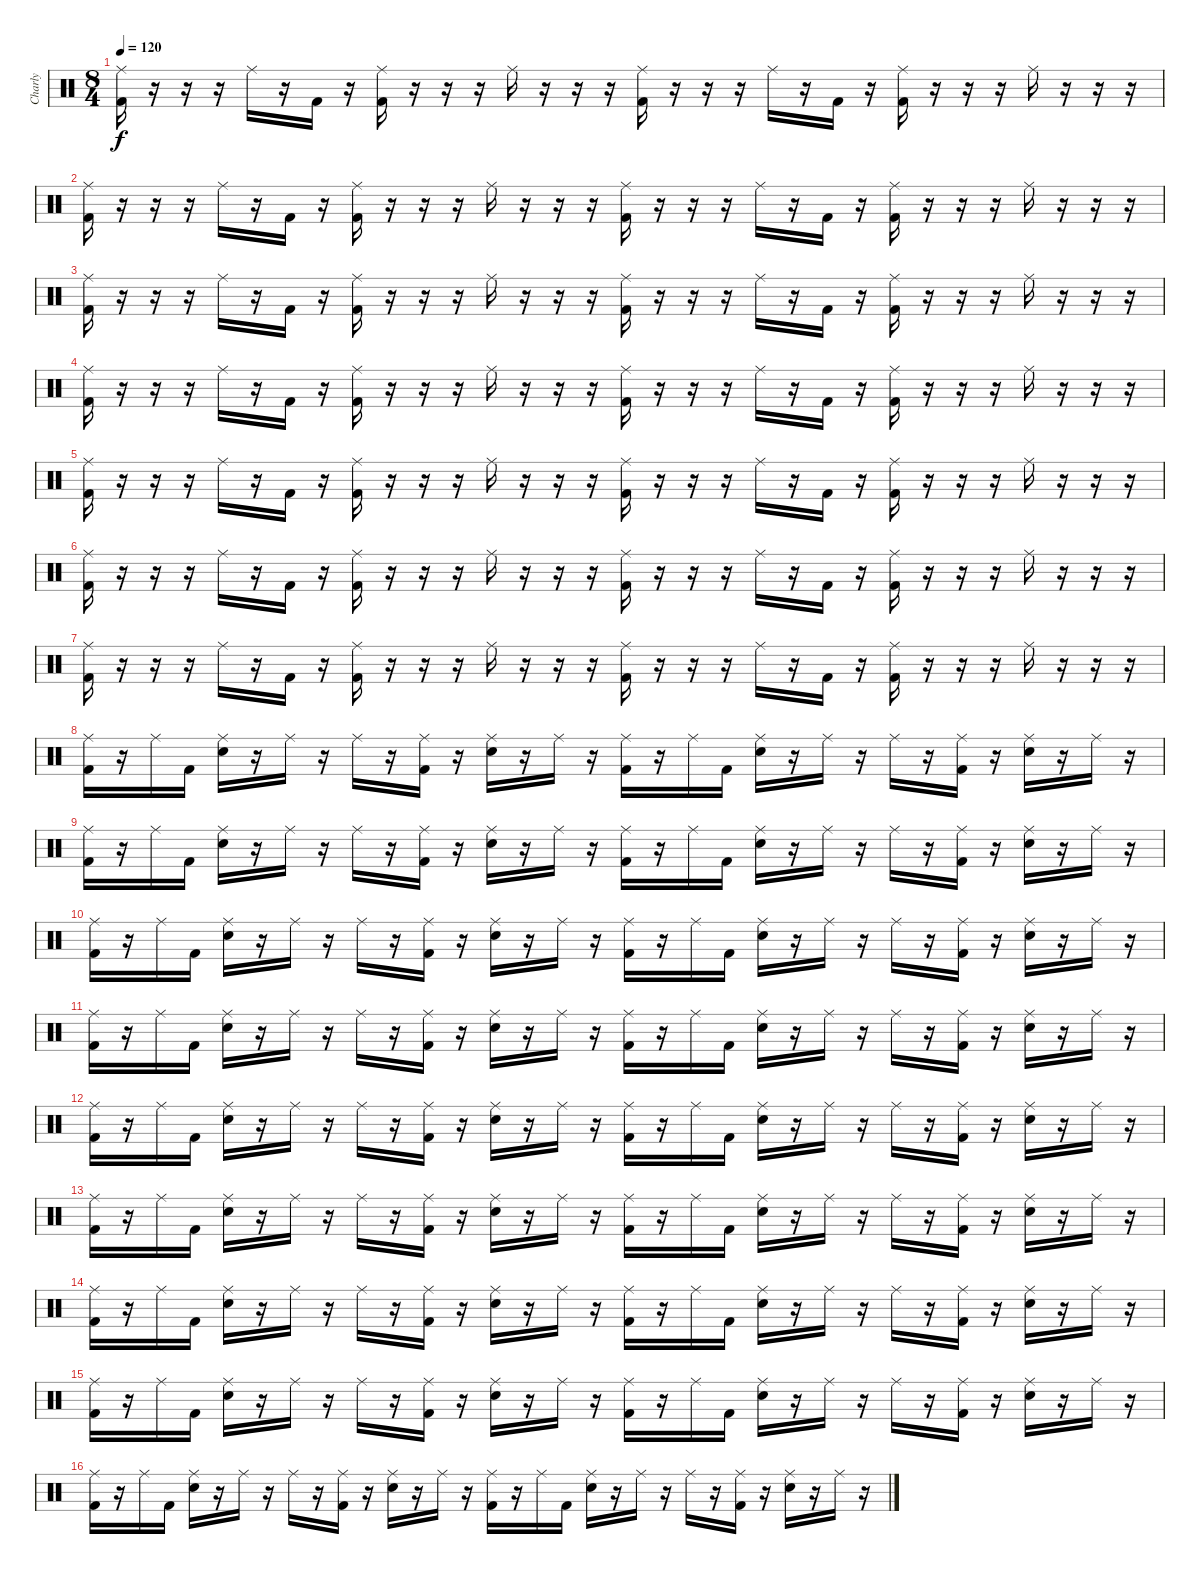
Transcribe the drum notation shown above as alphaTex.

\track ("Charly" "Charly") {instrument percussion}
\staff {score}
\articulation defaults
\ts (8 4)
\tempo 120
\clef neutral
\ks c
("Ride (middle)" "Kick (hit) 2").16{dy f} r.16 r.16 r.16 "Ride (middle)".16 r.16 "Kick (hit) 2".16 r.16 ("Ride (middle)" "Kick (hit) 2").16 r.16 r.16 r.16 "Ride (middle)".16 r.16 r.16 r.16 ("Ride (middle)" "Kick (hit) 2").16 r.16 r.16 r.16 "Ride (middle)".16 r.16 "Kick (hit) 2".16 r.16 ("Ride (middle)" "Kick (hit) 2").16 r.16 r.16 r.16 "Ride (middle)".16 r.16 r.16 r.16 |
("Ride (middle)" "Kick (hit) 2").16 r.16 r.16 r.16 "Ride (middle)".16 r.16 "Kick (hit) 2".16 r.16 ("Ride (middle)" "Kick (hit) 2").16 r.16 r.16 r.16 "Ride (middle)".16 r.16 r.16 r.16 ("Ride (middle)" "Kick (hit) 2").16 r.16 r.16 r.16 "Ride (middle)".16 r.16 "Kick (hit) 2".16 r.16 ("Ride (middle)" "Kick (hit) 2").16 r.16 r.16 r.16 "Ride (middle)".16 r.16 r.16 r.16 |
("Ride (middle)" "Kick (hit) 2").16 r.16 r.16 r.16 "Ride (middle)".16 r.16 "Kick (hit) 2".16 r.16 ("Ride (middle)" "Kick (hit) 2").16 r.16 r.16 r.16 "Ride (middle)".16 r.16 r.16 r.16 ("Ride (middle)" "Kick (hit) 2").16 r.16 r.16 r.16 "Ride (middle)".16 r.16 "Kick (hit) 2".16 r.16 ("Ride (middle)" "Kick (hit) 2").16 r.16 r.16 r.16 "Ride (middle)".16 r.16 r.16 r.16 |
("Ride (middle)" "Kick (hit) 2").16 r.16 r.16 r.16 "Ride (middle)".16 r.16 "Kick (hit) 2".16 r.16 ("Ride (middle)" "Kick (hit) 2").16 r.16 r.16 r.16 "Ride (middle)".16 r.16 r.16 r.16 ("Ride (middle)" "Kick (hit) 2").16 r.16 r.16 r.16 "Ride (middle)".16 r.16 "Kick (hit) 2".16 r.16 ("Ride (middle)" "Kick (hit) 2").16 r.16 r.16 r.16 "Ride (middle)".16 r.16 r.16 r.16 |
("Ride (middle)" "Kick (hit) 2").16 r.16 r.16 r.16 "Ride (middle)".16 r.16 "Kick (hit) 2".16 r.16 ("Ride (middle)" "Kick (hit) 2").16 r.16 r.16 r.16 "Ride (middle)".16 r.16 r.16 r.16 ("Ride (middle)" "Kick (hit) 2").16 r.16 r.16 r.16 "Ride (middle)".16 r.16 "Kick (hit) 2".16 r.16 ("Ride (middle)" "Kick (hit) 2").16 r.16 r.16 r.16 "Ride (middle)".16 r.16 r.16 r.16 |
("Ride (middle)" "Kick (hit) 2").16 r.16 r.16 r.16 "Ride (middle)".16 r.16 "Kick (hit) 2".16 r.16 ("Ride (middle)" "Kick (hit) 2").16 r.16 r.16 r.16 "Ride (middle)".16 r.16 r.16 r.16 ("Ride (middle)" "Kick (hit) 2").16 r.16 r.16 r.16 "Ride (middle)".16 r.16 "Kick (hit) 2".16 r.16 ("Ride (middle)" "Kick (hit) 2").16 r.16 r.16 r.16 "Ride (middle)".16 r.16 r.16 r.16 |
("Ride (middle)" "Kick (hit) 2").16 r.16 r.16 r.16 "Ride (middle)".16 r.16 "Kick (hit) 2".16 r.16 ("Ride (middle)" "Kick (hit) 2").16 r.16 r.16 r.16 "Ride (middle)".16 r.16 r.16 r.16 ("Ride (middle)" "Kick (hit) 2").16 r.16 r.16 r.16 "Ride (middle)".16 r.16 "Kick (hit) 2".16 r.16 ("Ride (middle)" "Kick (hit) 2").16 r.16 r.16 r.16 "Ride (middle)".16 r.16 r.16 r.16 |
("Ride (middle)" "Kick (hit) 2").16 r.16 "Ride (middle)".16 "Kick (hit) 2".16 ("Ride (middle)" "Snare (hit) 2").16 r.16 "Ride (middle)".16 r.16 "Ride (middle)".16 r.16 ("Ride (middle)" "Kick (hit) 2").16 r.16 ("Ride (middle)" "Snare (hit) 2").16 r.16 "Ride (middle)".16 r.16 ("Ride (middle)" "Kick (hit) 2").16 r.16 "Ride (middle)".16 "Kick (hit) 2".16 ("Ride (middle)" "Snare (hit) 2").16 r.16 "Ride (middle)".16 r.16 "Ride (middle)".16 r.16 ("Ride (middle)" "Kick (hit) 2").16 r.16 ("Ride (middle)" "Snare (hit) 2").16 r.16 "Ride (middle)".16 r.16 |
("Ride (middle)" "Kick (hit) 2").16 r.16 "Ride (middle)".16 "Kick (hit) 2".16 ("Ride (middle)" "Snare (hit) 2").16 r.16 "Ride (middle)".16 r.16 "Ride (middle)".16 r.16 ("Ride (middle)" "Kick (hit) 2").16 r.16 ("Ride (middle)" "Snare (hit) 2").16 r.16 "Ride (middle)".16 r.16 ("Ride (middle)" "Kick (hit) 2").16 r.16 "Ride (middle)".16 "Kick (hit) 2".16 ("Ride (middle)" "Snare (hit) 2").16 r.16 "Ride (middle)".16 r.16 "Ride (middle)".16 r.16 ("Ride (middle)" "Kick (hit) 2").16 r.16 ("Ride (middle)" "Snare (hit) 2").16 r.16 "Ride (middle)".16 r.16 |
("Ride (middle)" "Kick (hit) 2").16 r.16 "Ride (middle)".16 "Kick (hit) 2".16 ("Ride (middle)" "Snare (hit) 2").16 r.16 "Ride (middle)".16 r.16 "Ride (middle)".16 r.16 ("Ride (middle)" "Kick (hit) 2").16 r.16 ("Ride (middle)" "Snare (hit) 2").16 r.16 "Ride (middle)".16 r.16 ("Ride (middle)" "Kick (hit) 2").16 r.16 "Ride (middle)".16 "Kick (hit) 2".16 ("Ride (middle)" "Snare (hit) 2").16 r.16 "Ride (middle)".16 r.16 "Ride (middle)".16 r.16 ("Ride (middle)" "Kick (hit) 2").16 r.16 ("Ride (middle)" "Snare (hit) 2").16 r.16 "Ride (middle)".16 r.16 |
("Ride (middle)" "Kick (hit) 2").16 r.16 "Ride (middle)".16 "Kick (hit) 2".16 ("Ride (middle)" "Snare (hit) 2").16 r.16 "Ride (middle)".16 r.16 "Ride (middle)".16 r.16 ("Ride (middle)" "Kick (hit) 2").16 r.16 ("Ride (middle)" "Snare (hit) 2").16 r.16 "Ride (middle)".16 r.16 ("Ride (middle)" "Kick (hit) 2").16 r.16 "Ride (middle)".16 "Kick (hit) 2".16 ("Ride (middle)" "Snare (hit) 2").16 r.16 "Ride (middle)".16 r.16 "Ride (middle)".16 r.16 ("Ride (middle)" "Kick (hit) 2").16 r.16 ("Ride (middle)" "Snare (hit) 2").16 r.16 "Ride (middle)".16 r.16 |
("Ride (middle)" "Kick (hit) 2").16 r.16 "Ride (middle)".16 "Kick (hit) 2".16 ("Ride (middle)" "Snare (hit) 2").16 r.16 "Ride (middle)".16 r.16 "Ride (middle)".16 r.16 ("Ride (middle)" "Kick (hit) 2").16 r.16 ("Ride (middle)" "Snare (hit) 2").16 r.16 "Ride (middle)".16 r.16 ("Ride (middle)" "Kick (hit) 2").16 r.16 "Ride (middle)".16 "Kick (hit) 2".16 ("Ride (middle)" "Snare (hit) 2").16 r.16 "Ride (middle)".16 r.16 "Ride (middle)".16 r.16 ("Ride (middle)" "Kick (hit) 2").16 r.16 ("Ride (middle)" "Snare (hit) 2").16 r.16 "Ride (middle)".16 r.16 |
("Ride (middle)" "Kick (hit) 2").16 r.16 "Ride (middle)".16 "Kick (hit) 2".16 ("Ride (middle)" "Snare (hit) 2").16 r.16 "Ride (middle)".16 r.16 "Ride (middle)".16 r.16 ("Ride (middle)" "Kick (hit) 2").16 r.16 ("Ride (middle)" "Snare (hit) 2").16 r.16 "Ride (middle)".16 r.16 ("Ride (middle)" "Kick (hit) 2").16 r.16 "Ride (middle)".16 "Kick (hit) 2".16 ("Ride (middle)" "Snare (hit) 2").16 r.16 "Ride (middle)".16 r.16 "Ride (middle)".16 r.16 ("Ride (middle)" "Kick (hit) 2").16 r.16 ("Ride (middle)" "Snare (hit) 2").16 r.16 "Ride (middle)".16 r.16 |
("Ride (middle)" "Kick (hit) 2").16 r.16 "Ride (middle)".16 "Kick (hit) 2".16 ("Ride (middle)" "Snare (hit) 2").16 r.16 "Ride (middle)".16 r.16 "Ride (middle)".16 r.16 ("Ride (middle)" "Kick (hit) 2").16 r.16 ("Ride (middle)" "Snare (hit) 2").16 r.16 "Ride (middle)".16 r.16 ("Ride (middle)" "Kick (hit) 2").16 r.16 "Ride (middle)".16 "Kick (hit) 2".16 ("Ride (middle)" "Snare (hit) 2").16 r.16 "Ride (middle)".16 r.16 "Ride (middle)".16 r.16 ("Ride (middle)" "Kick (hit) 2").16 r.16 ("Ride (middle)" "Snare (hit) 2").16 r.16 "Ride (middle)".16 r.16 |
("Ride (middle)" "Kick (hit) 2").16 r.16 "Ride (middle)".16 "Kick (hit) 2".16 ("Ride (middle)" "Snare (hit) 2").16 r.16 "Ride (middle)".16 r.16 "Ride (middle)".16 r.16 ("Ride (middle)" "Kick (hit) 2").16 r.16 ("Ride (middle)" "Snare (hit) 2").16 r.16 "Ride (middle)".16 r.16 ("Ride (middle)" "Kick (hit) 2").16 r.16 "Ride (middle)".16 "Kick (hit) 2".16 ("Ride (middle)" "Snare (hit) 2").16 r.16 "Ride (middle)".16 r.16 "Ride (middle)".16 r.16 ("Ride (middle)" "Kick (hit) 2").16 r.16 ("Ride (middle)" "Snare (hit) 2").16 r.16 "Ride (middle)".16 r.16 |
("Ride (middle)" "Kick (hit) 2").16 r.16 "Ride (middle)".16 "Kick (hit) 2".16 ("Ride (middle)" "Snare (hit) 2").16 r.16 "Ride (middle)".16 r.16 "Ride (middle)".16 r.16 ("Ride (middle)" "Kick (hit) 2").16 r.16 ("Ride (middle)" "Snare (hit) 2").16 r.16 "Ride (middle)".16 r.16 ("Ride (middle)" "Kick (hit) 2").16 r.16 "Ride (middle)".16 "Kick (hit) 2".16 ("Ride (middle)" "Snare (hit) 2").16 r.16 "Ride (middle)".16 r.16 "Ride (middle)".16 r.16 ("Ride (middle)" "Kick (hit) 2").16 r.16 ("Ride (middle)" "Snare (hit) 2").16 r.16 "Ride (middle)".16 r.16
